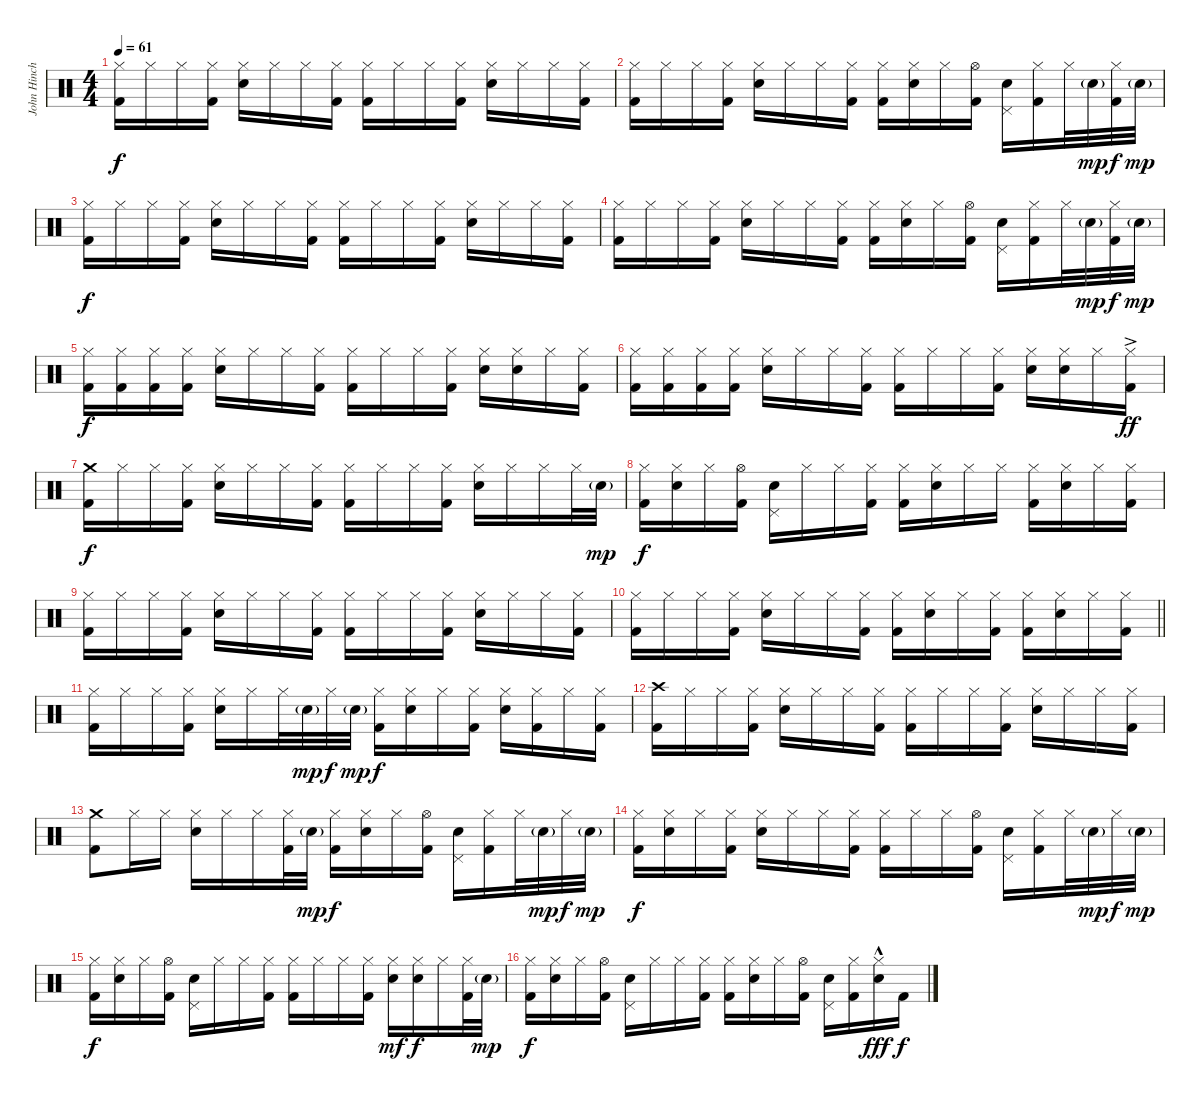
\track ("John Hinch" "John Hinch") {instrument percussion}
\staff {score}
\articulation defaults
\ts (4 4)
\tempo 61
\clef neutral
\ks c
("Hi-Hat (closed)" "Kick (hit) 2").16{dy f} "Hi-Hat (closed)".16 "Hi-Hat (closed)".16 ("Hi-Hat (closed)" "Kick (hit) 2").16 ("Hi-Hat (closed)" "Electric Snare (hit)").16 "Hi-Hat (closed)".16 "Hi-Hat (closed)".16 ("Hi-Hat (closed)" "Kick (hit) 2").16 ("Hi-Hat (closed)" "Kick (hit) 2").16 "Hi-Hat (closed)".16 "Hi-Hat (closed)".16 ("Hi-Hat (closed)" "Kick (hit) 2").16 ("Hi-Hat (closed)" "Electric Snare (hit)").16 "Hi-Hat (closed)".16 "Hi-Hat (closed)".16 ("Hi-Hat (closed)" "Kick (hit) 2").16 |
("Hi-Hat (closed)" "Kick (hit) 2").16 "Hi-Hat (closed)".16 "Hi-Hat (closed)".16 ("Hi-Hat (closed)" "Kick (hit) 2").16 ("Hi-Hat (closed)" "Electric Snare (hit)").16 "Hi-Hat (closed)".16 "Hi-Hat (closed)".16 ("Hi-Hat (closed)" "Kick (hit) 2").16 ("Hi-Hat (closed)" "Kick (hit) 2").16 ("Hi-Hat (closed)" "Electric Snare (hit)").16 "Hi-Hat (closed)".16 ("Hi-Hat (open)" "Kick (hit) 2").16 ("Pedal Hi-Hat (hit)" "Electric Snare (hit)").16 ("Hi-Hat (closed)" "Kick (hit) 2").16 "Hi-Hat (closed)".32 "Electric Snare (hit)"{g}.32{dy mp} ("Hi-Hat (closed)" "Kick (hit) 2").32{dy f} "Electric Snare (hit)"{g}.32{dy mp} |
("Hi-Hat (closed)" "Kick (hit) 2").16{dy f} "Hi-Hat (closed)".16 "Hi-Hat (closed)".16 ("Hi-Hat (closed)" "Kick (hit) 2").16 ("Hi-Hat (closed)" "Electric Snare (hit)").16 "Hi-Hat (closed)".16 "Hi-Hat (closed)".16 ("Hi-Hat (closed)" "Kick (hit) 2").16 ("Hi-Hat (closed)" "Kick (hit) 2").16 "Hi-Hat (closed)".16 "Hi-Hat (closed)".16 ("Hi-Hat (closed)" "Kick (hit) 2").16 ("Hi-Hat (closed)" "Electric Snare (hit)").16 "Hi-Hat (closed)".16 "Hi-Hat (closed)".16 ("Hi-Hat (closed)" "Kick (hit) 2").16 |
("Hi-Hat (closed)" "Kick (hit) 2").16 "Hi-Hat (closed)".16 "Hi-Hat (closed)".16 ("Hi-Hat (closed)" "Kick (hit) 2").16 ("Hi-Hat (closed)" "Electric Snare (hit)").16 "Hi-Hat (closed)".16 "Hi-Hat (closed)".16 ("Hi-Hat (closed)" "Kick (hit) 2").16 ("Hi-Hat (closed)" "Kick (hit) 2").16 ("Hi-Hat (closed)" "Electric Snare (hit)").16 "Hi-Hat (closed)".16 ("Hi-Hat (open)" "Kick (hit) 2").16 ("Pedal Hi-Hat (hit)" "Electric Snare (hit)").16 ("Hi-Hat (closed)" "Kick (hit) 2").16 "Hi-Hat (closed)".32 "Electric Snare (hit)"{g}.32{dy mp} ("Hi-Hat (closed)" "Kick (hit) 2").32{dy f} "Electric Snare (hit)"{g}.32{dy mp} |
("Hi-Hat (closed)" "Kick (hit) 2").16{dy f} ("Hi-Hat (closed)" "Kick (hit) 2").16 ("Hi-Hat (closed)" "Kick (hit) 2").16 ("Hi-Hat (closed)" "Kick (hit) 2").16 ("Hi-Hat (closed)" "Electric Snare (hit)").16 "Hi-Hat (closed)".16 "Hi-Hat (closed)".16 ("Hi-Hat (closed)" "Kick (hit) 2").16 ("Hi-Hat (closed)" "Kick (hit) 2").16 "Hi-Hat (closed)".16 "Hi-Hat (closed)".16 ("Hi-Hat (closed)" "Kick (hit) 2").16 ("Hi-Hat (closed)" "Electric Snare (hit)").16 ("Hi-Hat (closed)" "Electric Snare (hit)").16 "Hi-Hat (closed)".16 ("Hi-Hat (closed)" "Kick (hit) 2").16 |
("Hi-Hat (closed)" "Kick (hit) 2").16 ("Hi-Hat (closed)" "Kick (hit) 2").16 ("Hi-Hat (closed)" "Kick (hit) 2").16 ("Hi-Hat (closed)" "Kick (hit) 2").16 ("Hi-Hat (closed)" "Electric Snare (hit)").16 "Hi-Hat (closed)".16 "Hi-Hat (closed)".16 ("Hi-Hat (closed)" "Kick (hit) 2").16 ("Hi-Hat (closed)" "Kick (hit) 2").16 "Hi-Hat (closed)".16 "Hi-Hat (closed)".16 ("Hi-Hat (closed)" "Kick (hit) 2").16 ("Hi-Hat (closed)" "Electric Snare (hit)").16 ("Hi-Hat (closed)" "Electric Snare (hit)").16 "Hi-Hat (closed)".16 ("Hi-Hat (closed)"{ac} "Kick (hit) 2").16{dy ff} |
("Crash medium (hit)" "Kick (hit) 2").16{dy f} "Hi-Hat (closed)".16 "Hi-Hat (closed)".16 ("Hi-Hat (closed)" "Kick (hit) 2").16 ("Hi-Hat (closed)" "Electric Snare (hit)").16 "Hi-Hat (closed)".16 "Hi-Hat (closed)".16 ("Hi-Hat (closed)" "Kick (hit) 2").16 ("Hi-Hat (closed)" "Kick (hit) 2").16 "Hi-Hat (closed)".16 "Hi-Hat (closed)".16 ("Hi-Hat (closed)" "Kick (hit) 2").16 ("Hi-Hat (closed)" "Electric Snare (hit)").16 "Hi-Hat (closed)".16 "Hi-Hat (closed)".16 "Hi-Hat (closed)".32 "Electric Snare (hit)"{g}.32{dy mp} |
("Hi-Hat (closed)" "Kick (hit) 2").16{dy f} ("Hi-Hat (closed)" "Electric Snare (hit)").16 "Hi-Hat (closed)".16 ("Hi-Hat (open)" "Kick (hit) 2").16 ("Pedal Hi-Hat (hit)" "Electric Snare (hit)").16 "Hi-Hat (closed)".16 "Hi-Hat (closed)".16 ("Hi-Hat (closed)" "Kick (hit) 2").16 ("Hi-Hat (closed)" "Kick (hit) 2").16 ("Hi-Hat (closed)" "Electric Snare (hit)").16 "Hi-Hat (closed)".16 "Hi-Hat (closed)".16 ("Hi-Hat (closed)" "Kick (hit) 2").16 ("Hi-Hat (closed)" "Electric Snare (hit)").16 "Hi-Hat (closed)".16 ("Hi-Hat (closed)" "Kick (hit) 2").16 |
("Hi-Hat (closed)" "Kick (hit) 2").16 "Hi-Hat (closed)".16 "Hi-Hat (closed)".16 ("Hi-Hat (closed)" "Kick (hit) 2").16 ("Hi-Hat (closed)" "Electric Snare (hit)").16 "Hi-Hat (closed)".16 "Hi-Hat (closed)".16 ("Hi-Hat (closed)" "Kick (hit) 2").16 ("Hi-Hat (closed)" "Kick (hit) 2").16 "Hi-Hat (closed)".16 "Hi-Hat (closed)".16 ("Hi-Hat (closed)" "Kick (hit) 2").16 ("Hi-Hat (closed)" "Electric Snare (hit)").16 "Hi-Hat (closed)".16 "Hi-Hat (closed)".16 ("Hi-Hat (closed)" "Kick (hit) 2").16 |
\barLineRight lightlight
("Hi-Hat (closed)" "Kick (hit) 2").16 "Hi-Hat (closed)".16 "Hi-Hat (closed)".16 ("Hi-Hat (closed)" "Kick (hit) 2").16 ("Hi-Hat (closed)" "Electric Snare (hit)").16 "Hi-Hat (closed)".16 "Hi-Hat (closed)".16 ("Hi-Hat (closed)" "Kick (hit) 2").16 ("Hi-Hat (closed)" "Kick (hit) 2").16 ("Hi-Hat (closed)" "Electric Snare (hit)").16 "Hi-Hat (closed)".16 ("Hi-Hat (closed)" "Kick (hit) 2").16 ("Hi-Hat (closed)" "Kick (hit) 2").16 ("Hi-Hat (closed)" "Electric Snare (hit)").16 "Hi-Hat (closed)".16 ("Hi-Hat (closed)" "Kick (hit) 2").16 |
\section ("" "")
("Hi-Hat (closed)" "Kick (hit) 2").16 "Hi-Hat (closed)".16 "Hi-Hat (closed)".16 ("Hi-Hat (closed)" "Kick (hit) 2").16 ("Hi-Hat (closed)" "Electric Snare (hit)").16 "Hi-Hat (closed)".16 "Hi-Hat (closed)".32 "Electric Snare (hit)"{g}.32{dy mp} "Hi-Hat (closed)".32{dy f} "Electric Snare (hit)"{g}.32{dy mp} ("Hi-Hat (closed)" "Kick (hit) 2").16{dy f} ("Hi-Hat (closed)" "Electric Snare (hit)").16 "Hi-Hat (closed)".16 ("Hi-Hat (closed)" "Kick (hit) 2").16 ("Hi-Hat (closed)" "Electric Snare (hit)").16 ("Hi-Hat (closed)" "Kick (hit) 2").16 "Hi-Hat (closed)".16 ("Hi-Hat (closed)" "Kick (hit) 2").16 |
("Crash high (hit)" "Kick (hit) 2").16 "Hi-Hat (closed)".16 "Hi-Hat (closed)".16 ("Hi-Hat (closed)" "Kick (hit) 2").16 ("Hi-Hat (closed)" "Electric Snare (hit)").16 "Hi-Hat (closed)".16 "Hi-Hat (closed)".16 ("Hi-Hat (closed)" "Kick (hit) 2").16 ("Hi-Hat (closed)" "Kick (hit) 2").16 "Hi-Hat (closed)".16 "Hi-Hat (closed)".16 ("Hi-Hat (closed)" "Kick (hit) 2").16 ("Hi-Hat (closed)" "Electric Snare (hit)").16 "Hi-Hat (closed)".16 "Hi-Hat (closed)".16 ("Hi-Hat (closed)" "Kick (hit) 2").16 |
("Crash medium (hit)" "Kick (hit) 2").8 "Hi-Hat (closed)".16 "Hi-Hat (closed)".16 ("Hi-Hat (closed)" "Electric Snare (hit)").16 "Hi-Hat (closed)".16 "Hi-Hat (closed)".16 ("Hi-Hat (closed)" "Kick (hit) 2").32 "Electric Snare (hit)"{g}.32{dy mp} ("Hi-Hat (closed)" "Kick (hit) 2").16{dy f} ("Hi-Hat (closed)" "Electric Snare (hit)").16 "Hi-Hat (closed)".16 ("Hi-Hat (open)" "Kick (hit) 2").16 ("Pedal Hi-Hat (hit)" "Electric Snare (hit)").16 ("Hi-Hat (closed)" "Kick (hit) 2").16 "Hi-Hat (closed)".32 "Electric Snare (hit)"{g}.32{dy mp} "Hi-Hat (closed)".32{dy f} "Electric Snare (hit)"{g}.32{dy mp} |
("Hi-Hat (closed)" "Kick (hit) 2").16{dy f} ("Hi-Hat (closed)" "Electric Snare (hit)").16 "Hi-Hat (closed)".16 ("Hi-Hat (closed)" "Kick (hit) 2").16 ("Hi-Hat (closed)" "Electric Snare (hit)").16 "Hi-Hat (closed)".16 "Hi-Hat (closed)".16 ("Hi-Hat (closed)" "Kick (hit) 2").16 ("Hi-Hat (closed)" "Kick (hit) 2").16 "Hi-Hat (closed)".16 "Hi-Hat (closed)".16 ("Hi-Hat (open)" "Kick (hit) 2").16 ("Pedal Hi-Hat (hit)" "Electric Snare (hit)").16 ("Hi-Hat (closed)" "Kick (hit) 2").16 "Hi-Hat (closed)".32 "Electric Snare (hit)"{g}.32{dy mp} "Hi-Hat (closed)".32{dy f} "Electric Snare (hit)"{g}.32{dy mp} |
("Hi-Hat (closed)" "Kick (hit) 2").16{dy f} ("Hi-Hat (closed)" "Electric Snare (hit)").16 "Hi-Hat (closed)".16 ("Hi-Hat (open)" "Kick (hit) 2").16 ("Pedal Hi-Hat (hit)" "Electric Snare (hit)").16 "Hi-Hat (closed)".16 "Hi-Hat (closed)".16 ("Hi-Hat (closed)" "Kick (hit) 2").16 ("Hi-Hat (closed)" "Kick (hit) 2").16 "Hi-Hat (closed)".16 "Hi-Hat (closed)".16 ("Hi-Hat (closed)" "Kick (hit) 2").16 ("Hi-Hat (closed)" "Electric Snare (hit)").16{dy mf} ("Hi-Hat (closed)" "Electric Snare (hit)").16{dy f} "Hi-Hat (closed)".16 ("Hi-Hat (closed)" "Kick (hit) 2").32 "Electric Snare (hit)"{g}.32{dy mp} |
("Hi-Hat (closed)" "Kick (hit) 2").16{dy f} ("Hi-Hat (closed)" "Electric Snare (hit)").16 "Hi-Hat (closed)".16 ("Hi-Hat (open)" "Kick (hit) 2").16 ("Pedal Hi-Hat (hit)" "Electric Snare (hit)").16 "Hi-Hat (closed)".16 "Hi-Hat (closed)".16 ("Hi-Hat (closed)" "Kick (hit) 2").16 ("Hi-Hat (closed)" "Kick (hit) 2").16 ("Hi-Hat (closed)" "Electric Snare (hit)").16 "Hi-Hat (closed)".16 ("Hi-Hat (open)" "Kick (hit) 2").16 ("Pedal Hi-Hat (hit)" "Electric Snare (hit)").16 ("Hi-Hat (closed)" "Kick (hit) 2").16 ("Hi-Hat (closed)"{hac} "Electric Snare (hit)").16{dy fff} "Kick (hit) 2".16{dy f}
